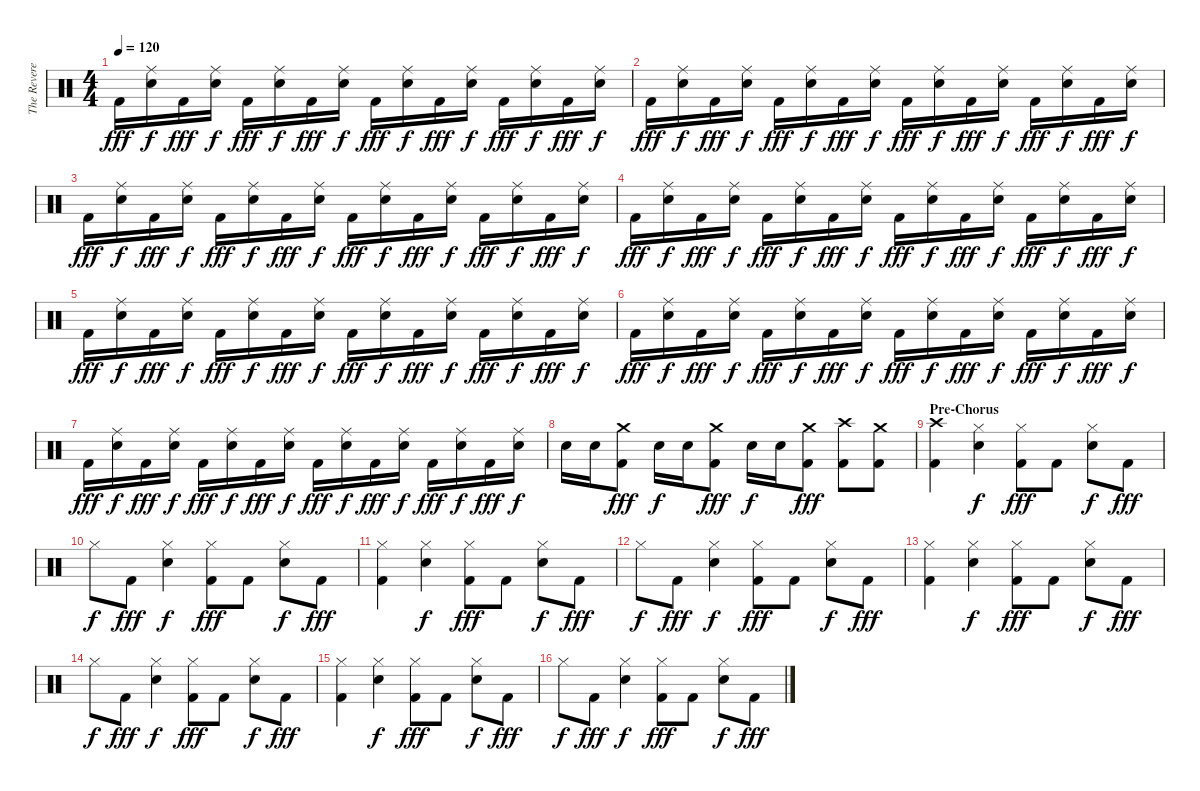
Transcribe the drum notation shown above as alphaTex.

\track ("The Reverend" "The Revere") {instrument percussion}
\staff {score}
\articulation defaults
\ts (4 4)
\tempo 120
\clef neutral
\ks c "Kick (hit) 2".16{dy fff}
("Ride (middle)" "Electric Snare (hit)").16{dy f} "Kick (hit) 2".16{dy fff} ("Ride (middle)" "Electric Snare (hit)").16{dy f} "Kick (hit) 2".16{dy fff} ("Ride (middle)" "Electric Snare (hit)").16{dy f} "Kick (hit) 2".16{dy fff} ("Ride (middle)" "Electric Snare (hit)").16{dy f} "Kick (hit) 2".16{dy fff} ("Ride (middle)" "Electric Snare (hit)").16{dy f} "Kick (hit) 2".16{dy fff} ("Ride (middle)" "Electric Snare (hit)").16{dy f} "Kick (hit) 2".16{dy fff} ("Ride (middle)" "Electric Snare (hit)").16{dy f} "Kick (hit) 2".16{dy fff} ("Ride (middle)" "Electric Snare (hit)").16{dy f} |
"Kick (hit) 2".16{dy fff} ("Ride (middle)" "Electric Snare (hit)").16{dy f} "Kick (hit) 2".16{dy fff} ("Ride (middle)" "Electric Snare (hit)").16{dy f} "Kick (hit) 2".16{dy fff} ("Ride (middle)" "Electric Snare (hit)").16{dy f} "Kick (hit) 2".16{dy fff} ("Ride (middle)" "Electric Snare (hit)").16{dy f} "Kick (hit) 2".16{dy fff} ("Ride (middle)" "Electric Snare (hit)").16{dy f} "Kick (hit) 2".16{dy fff} ("Ride (middle)" "Electric Snare (hit)").16{dy f} "Kick (hit) 2".16{dy fff} ("Ride (middle)" "Electric Snare (hit)").16{dy f} "Kick (hit) 2".16{dy fff} ("Ride (middle)" "Electric Snare (hit)").16{dy f} |
"Kick (hit) 2".16{dy fff} ("Ride (middle)" "Electric Snare (hit)").16{dy f} "Kick (hit) 2".16{dy fff} ("Ride (middle)" "Electric Snare (hit)").16{dy f} "Kick (hit) 2".16{dy fff} ("Ride (middle)" "Electric Snare (hit)").16{dy f} "Kick (hit) 2".16{dy fff} ("Ride (middle)" "Electric Snare (hit)").16{dy f} "Kick (hit) 2".16{dy fff} ("Ride (middle)" "Electric Snare (hit)").16{dy f} "Kick (hit) 2".16{dy fff} ("Ride (middle)" "Electric Snare (hit)").16{dy f} "Kick (hit) 2".16{dy fff} ("Ride (middle)" "Electric Snare (hit)").16{dy f} "Kick (hit) 2".16{dy fff} ("Ride (middle)" "Electric Snare (hit)").16{dy f} |
"Kick (hit) 2".16{dy fff} ("Ride (middle)" "Electric Snare (hit)").16{dy f} "Kick (hit) 2".16{dy fff} ("Ride (middle)" "Electric Snare (hit)").16{dy f} "Kick (hit) 2".16{dy fff} ("Ride (middle)" "Electric Snare (hit)").16{dy f} "Kick (hit) 2".16{dy fff} ("Ride (middle)" "Electric Snare (hit)").16{dy f} "Kick (hit) 2".16{dy fff} ("Ride (middle)" "Electric Snare (hit)").16{dy f} "Kick (hit) 2".16{dy fff} ("Ride (middle)" "Electric Snare (hit)").16{dy f} "Kick (hit) 2".16{dy fff} ("Ride (middle)" "Electric Snare (hit)").16{dy f} "Kick (hit) 2".16{dy fff} ("Ride (middle)" "Electric Snare (hit)").16{dy f} |
"Kick (hit) 2".16{dy fff} ("Ride (middle)" "Electric Snare (hit)").16{dy f} "Kick (hit) 2".16{dy fff} ("Ride (middle)" "Electric Snare (hit)").16{dy f} "Kick (hit) 2".16{dy fff} ("Ride (middle)" "Electric Snare (hit)").16{dy f} "Kick (hit) 2".16{dy fff} ("Ride (middle)" "Electric Snare (hit)").16{dy f} "Kick (hit) 2".16{dy fff} ("Ride (middle)" "Electric Snare (hit)").16{dy f} "Kick (hit) 2".16{dy fff} ("Ride (middle)" "Electric Snare (hit)").16{dy f} "Kick (hit) 2".16{dy fff} ("Ride (middle)" "Electric Snare (hit)").16{dy f} "Kick (hit) 2".16{dy fff} ("Ride (middle)" "Electric Snare (hit)").16{dy f} |
"Kick (hit) 2".16{dy fff} ("Ride (middle)" "Electric Snare (hit)").16{dy f} "Kick (hit) 2".16{dy fff} ("Ride (middle)" "Electric Snare (hit)").16{dy f} "Kick (hit) 2".16{dy fff} ("Ride (middle)" "Electric Snare (hit)").16{dy f} "Kick (hit) 2".16{dy fff} ("Ride (middle)" "Electric Snare (hit)").16{dy f} "Kick (hit) 2".16{dy fff} ("Ride (middle)" "Electric Snare (hit)").16{dy f} "Kick (hit) 2".16{dy fff} ("Ride (middle)" "Electric Snare (hit)").16{dy f} "Kick (hit) 2".16{dy fff} ("Ride (middle)" "Electric Snare (hit)").16{dy f} "Kick (hit) 2".16{dy fff} ("Ride (middle)" "Electric Snare (hit)").16{dy f} |
"Kick (hit) 2".16{dy fff} ("Ride (middle)" "Electric Snare (hit)").16{dy f} "Kick (hit) 2".16{dy fff} ("Ride (middle)" "Electric Snare (hit)").16{dy f} "Kick (hit) 2".16{dy fff} ("Ride (middle)" "Electric Snare (hit)").16{dy f} "Kick (hit) 2".16{dy fff} ("Ride (middle)" "Electric Snare (hit)").16{dy f} "Kick (hit) 2".16{dy fff} ("Ride (middle)" "Electric Snare (hit)").16{dy f} "Kick (hit) 2".16{dy fff} ("Ride (middle)" "Electric Snare (hit)").16{dy f} "Kick (hit) 2".16{dy fff} ("Ride (middle)" "Electric Snare (hit)").16{dy f} "Kick (hit) 2".16{dy fff} ("Ride (middle)" "Electric Snare (hit)").16{dy f} |
"Electric Snare (hit)".16 "Electric Snare (hit)".16 ("Crash medium (hit)" "Kick (hit) 2").8{dy fff} "Electric Snare (hit)".16{dy f} "Electric Snare (hit)".16 ("Crash medium (hit)" "Kick (hit) 2").8{dy fff} "Electric Snare (hit)".16{dy f} "Electric Snare (hit)".16 ("Crash medium (hit)" "Kick (hit) 2").8{dy fff} ("Crash high (hit)" "Kick (hit) 2").8 ("Crash medium (hit)" "Kick (hit) 2").8 |
\section ("" "Pre-Chorus")
("Crash high (hit)" "Kick (hit) 2").4 ("Hi-Hat (closed)" "Electric Snare (hit)").4{dy f} ("Hi-Hat (closed)" "Kick (hit) 2").8{dy fff} "Kick (hit) 2".8 ("Hi-Hat (closed)" "Electric Snare (hit)").8{dy f} "Kick (hit) 2".8{dy fff} |
"Hi-Hat (closed)".8{dy f} "Kick (hit) 2".8{dy fff} ("Hi-Hat (closed)" "Electric Snare (hit)").4{dy f} ("Hi-Hat (closed)" "Kick (hit) 2").8{dy fff} "Kick (hit) 2".8 ("Hi-Hat (closed)" "Electric Snare (hit)").8{dy f} "Kick (hit) 2".8{dy fff} |
("Hi-Hat (closed)" "Kick (hit) 2").4 ("Hi-Hat (closed)" "Electric Snare (hit)").4{dy f} ("Hi-Hat (closed)" "Kick (hit) 2").8{dy fff} "Kick (hit) 2".8 ("Hi-Hat (closed)" "Electric Snare (hit)").8{dy f} "Kick (hit) 2".8{dy fff} |
"Hi-Hat (closed)".8{dy f} "Kick (hit) 2".8{dy fff} ("Hi-Hat (closed)" "Electric Snare (hit)").4{dy f} ("Hi-Hat (closed)" "Kick (hit) 2").8{dy fff} "Kick (hit) 2".8 ("Hi-Hat (closed)" "Electric Snare (hit)").8{dy f} "Kick (hit) 2".8{dy fff} |
("Hi-Hat (closed)" "Kick (hit) 2").4 ("Hi-Hat (closed)" "Electric Snare (hit)").4{dy f} ("Hi-Hat (closed)" "Kick (hit) 2").8{dy fff} "Kick (hit) 2".8 ("Hi-Hat (closed)" "Electric Snare (hit)").8{dy f} "Kick (hit) 2".8{dy fff} |
"Hi-Hat (closed)".8{dy f} "Kick (hit) 2".8{dy fff} ("Hi-Hat (closed)" "Electric Snare (hit)").4{dy f} ("Hi-Hat (closed)" "Kick (hit) 2").8{dy fff} "Kick (hit) 2".8 ("Hi-Hat (closed)" "Electric Snare (hit)").8{dy f} "Kick (hit) 2".8{dy fff} |
("Hi-Hat (closed)" "Kick (hit) 2").4 ("Hi-Hat (closed)" "Electric Snare (hit)").4{dy f} ("Hi-Hat (closed)" "Kick (hit) 2").8{dy fff} "Kick (hit) 2".8 ("Hi-Hat (closed)" "Electric Snare (hit)").8{dy f} "Kick (hit) 2".8{dy fff} |
"Hi-Hat (closed)".8{dy f} "Kick (hit) 2".8{dy fff} ("Hi-Hat (closed)" "Electric Snare (hit)").4{dy f} ("Hi-Hat (closed)" "Kick (hit) 2").8{dy fff} "Kick (hit) 2".8 ("Hi-Hat (closed)" "Electric Snare (hit)").8{dy f} "Kick (hit) 2".8{dy fff}
